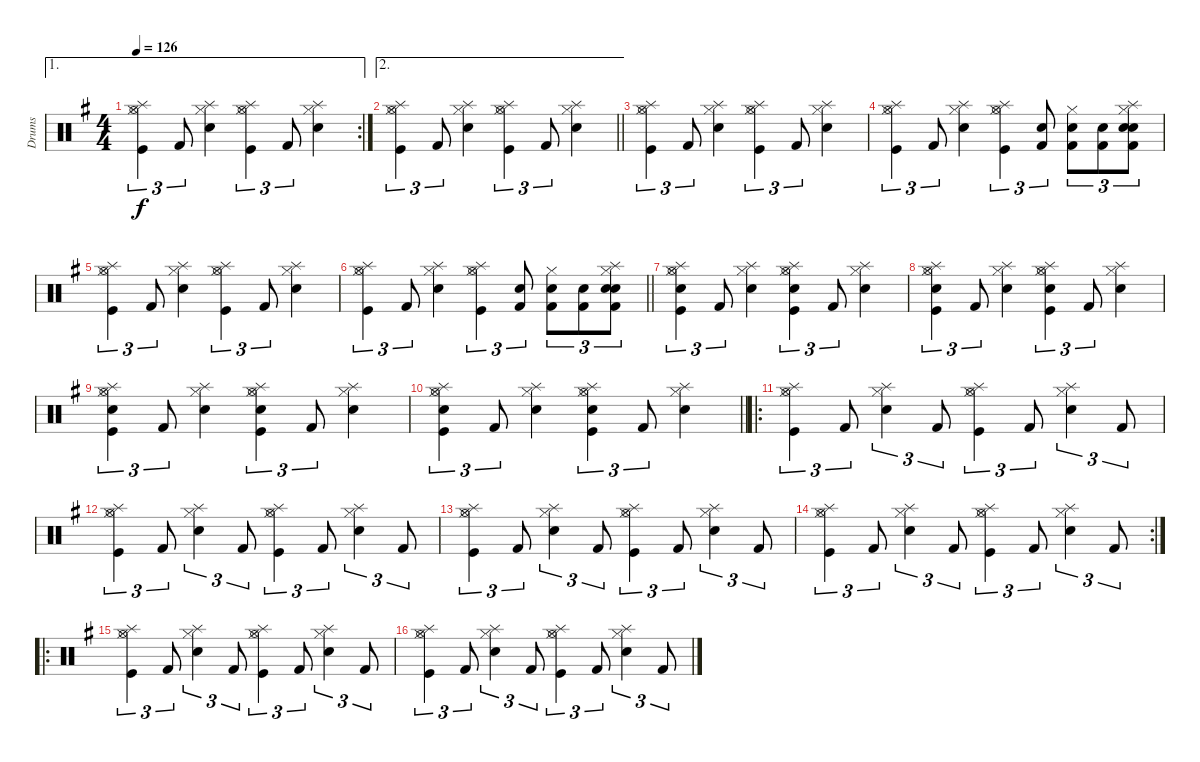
\track ("Drums" "Drums") {instrument percussion}
\staff {score}
\articulation defaults
\ae 1
\rc 2
\ts (4 4)
\tempo 126
\clef neutral
\ks eminor
("Splash (hit)" "Hi-Hat (closed)" "Hi-Hat (open)" "Kick (hit)").4{tu (3 2) dy f} "Kick (hit) 2".8{tu (3 2)} ("Splash (hit)" "Hi-Hat (closed)" "Electric Snare (hit)").4 ("Splash (hit)" "Hi-Hat (closed)" "Hi-Hat (open)" "Kick (hit)").4{tu (3 2)} "Kick (hit) 2".8{tu (3 2)} ("Splash (hit)" "Hi-Hat (closed)" "Electric Snare (hit)").4 |
\ae 2
\barLineRight lightlight
("Splash (hit)" "Hi-Hat (closed)" "Hi-Hat (open)" "Kick (hit)").4{tu (3 2)} "Kick (hit) 2".8{tu (3 2)} ("Splash (hit)" "Hi-Hat (closed)" "Electric Snare (hit)").4 ("Splash (hit)" "Hi-Hat (closed)" "Hi-Hat (open)" "Kick (hit)").4{tu (3 2)} "Kick (hit) 2".8{tu (3 2)} ("Splash (hit)" "Hi-Hat (closed)" "Electric Snare (hit)").4 |
("Splash (hit)" "Hi-Hat (closed)" "Hi-Hat (open)" "Kick (hit)").4{tu (3 2)} "Kick (hit) 2".8{tu (3 2)} ("Splash (hit)" "Hi-Hat (closed)" "Electric Snare (hit)").4 ("Splash (hit)" "Hi-Hat (closed)" "Hi-Hat (open)" "Kick (hit)").4{tu (3 2)} "Kick (hit) 2".8{tu (3 2)} ("Splash (hit)" "Hi-Hat (closed)" "Electric Snare (hit)").4 |
("Splash (hit)" "Hi-Hat (closed)" "Hi-Hat (open)" "Kick (hit)").4{tu (3 2)} "Kick (hit) 2".8{tu (3 2)} ("Splash (hit)" "Hi-Hat (closed)" "Electric Snare (hit)").4 ("Splash (hit)" "Hi-Hat (closed)" "Hi-Hat (open)" "Kick (hit)").4{tu (3 2)} ("Electric Snare (hit)" "Kick (hit) 2").8{tu (3 2)} ("Hi-Hat (closed)" "Electric Snare (hit)" "Kick (hit) 2").8{tu (3 2)} ("Electric Snare (hit)" "Kick (hit) 2").8{tu (3 2)} ("Splash (hit)" "Hi-Hat (closed)" "Snare (hit) 2" "Electric Snare (hit)" "Kick (hit) 2").8{tu (3 2)} |
("Splash (hit)" "Hi-Hat (closed)" "Hi-Hat (open)" "Kick (hit)").4{tu (3 2)} "Kick (hit) 2".8{tu (3 2)} ("Splash (hit)" "Hi-Hat (closed)" "Electric Snare (hit)").4 ("Splash (hit)" "Hi-Hat (closed)" "Hi-Hat (open)" "Kick (hit)").4{tu (3 2)} "Kick (hit) 2".8{tu (3 2)} ("Splash (hit)" "Hi-Hat (closed)" "Electric Snare (hit)").4 |
\barLineRight lightlight
("Splash (hit)" "Hi-Hat (closed)" "Hi-Hat (open)" "Kick (hit)").4{tu (3 2)} "Kick (hit) 2".8{tu (3 2)} ("Splash (hit)" "Hi-Hat (closed)" "Electric Snare (hit)").4 ("Splash (hit)" "Hi-Hat (closed)" "Hi-Hat (open)" "Kick (hit)").4{tu (3 2)} ("Electric Snare (hit)" "Kick (hit) 2").8{tu (3 2)} ("Hi-Hat (closed)" "Electric Snare (hit)" "Kick (hit) 2").8{tu (3 2)} ("Electric Snare (hit)" "Kick (hit) 2").8{tu (3 2)} ("Splash (hit)" "Hi-Hat (closed)" "Snare (hit) 2" "Electric Snare (hit)" "Kick (hit) 2").8{tu (3 2)} |
("Splash (hit)" "Hi-Hat (closed)" "Hi-Hat (open)" "Electric Snare (hit)" "Kick (hit)").4{tu (3 2)} "Kick (hit) 2".8{tu (3 2)} ("Splash (hit)" "Hi-Hat (closed)" "Electric Snare (hit)").4 ("Splash (hit)" "Hi-Hat (closed)" "Hi-Hat (open)" "Electric Snare (hit)" "Kick (hit)").4{tu (3 2)} "Kick (hit) 2".8{tu (3 2)} ("Splash (hit)" "Hi-Hat (closed)" "Electric Snare (hit)").4 |
("Splash (hit)" "Hi-Hat (closed)" "Hi-Hat (open)" "Electric Snare (hit)" "Kick (hit)").4{tu (3 2)} "Kick (hit) 2".8{tu (3 2)} ("Splash (hit)" "Hi-Hat (closed)" "Electric Snare (hit)").4 ("Splash (hit)" "Hi-Hat (closed)" "Hi-Hat (open)" "Electric Snare (hit)" "Kick (hit)").4{tu (3 2)} "Kick (hit) 2".8{tu (3 2)} ("Splash (hit)" "Hi-Hat (closed)" "Electric Snare (hit)").4 |
("Splash (hit)" "Hi-Hat (closed)" "Hi-Hat (open)" "Electric Snare (hit)" "Kick (hit)").4{tu (3 2)} "Kick (hit) 2".8{tu (3 2)} ("Splash (hit)" "Hi-Hat (closed)" "Electric Snare (hit)").4 ("Splash (hit)" "Hi-Hat (closed)" "Hi-Hat (open)" "Electric Snare (hit)" "Kick (hit)").4{tu (3 2)} "Kick (hit) 2".8{tu (3 2)} ("Splash (hit)" "Hi-Hat (closed)" "Electric Snare (hit)").4 |
\barLineRight lightlight
("Splash (hit)" "Hi-Hat (closed)" "Hi-Hat (open)" "Electric Snare (hit)" "Kick (hit)").4{tu (3 2)} "Kick (hit) 2".8{tu (3 2)} ("Splash (hit)" "Hi-Hat (closed)" "Electric Snare (hit)").4 ("Splash (hit)" "Hi-Hat (closed)" "Hi-Hat (open)" "Electric Snare (hit)" "Kick (hit)").4{tu (3 2)} "Kick (hit) 2".8{tu (3 2)} ("Splash (hit)" "Hi-Hat (closed)" "Electric Snare (hit)").4 |
\ro
("Splash (hit)" "Hi-Hat (closed)" "Hi-Hat (open)" "Kick (hit)").4{tu (3 2)} "Kick (hit) 2".8{tu (3 2)} ("Splash (hit)" "Hi-Hat (closed)" "Electric Snare (hit)").4{tu (3 2)} "Kick (hit) 2".8{tu (3 2)} ("Splash (hit)" "Hi-Hat (closed)" "Hi-Hat (open)" "Kick (hit)").4{tu (3 2)} "Kick (hit) 2".8{tu (3 2)} ("Splash (hit)" "Hi-Hat (closed)" "Electric Snare (hit)").4{tu (3 2)} "Kick (hit) 2".8{tu (3 2)} |
("Splash (hit)" "Hi-Hat (closed)" "Hi-Hat (open)" "Kick (hit)").4{tu (3 2)} "Kick (hit) 2".8{tu (3 2)} ("Splash (hit)" "Hi-Hat (closed)" "Electric Snare (hit)").4{tu (3 2)} "Kick (hit) 2".8{tu (3 2)} ("Splash (hit)" "Hi-Hat (closed)" "Hi-Hat (open)" "Kick (hit)").4{tu (3 2)} "Kick (hit) 2".8{tu (3 2)} ("Splash (hit)" "Hi-Hat (closed)" "Electric Snare (hit)").4{tu (3 2)} "Kick (hit) 2".8{tu (3 2)} |
("Splash (hit)" "Hi-Hat (closed)" "Hi-Hat (open)" "Kick (hit)").4{tu (3 2)} "Kick (hit) 2".8{tu (3 2)} ("Splash (hit)" "Hi-Hat (closed)" "Electric Snare (hit)").4{tu (3 2)} "Kick (hit) 2".8{tu (3 2)} ("Splash (hit)" "Hi-Hat (closed)" "Hi-Hat (open)" "Kick (hit)").4{tu (3 2)} "Kick (hit) 2".8{tu (3 2)} ("Splash (hit)" "Hi-Hat (closed)" "Electric Snare (hit)").4{tu (3 2)} "Kick (hit) 2".8{tu (3 2)} |
\rc 2
("Splash (hit)" "Hi-Hat (closed)" "Hi-Hat (open)" "Kick (hit)").4{tu (3 2)} "Kick (hit) 2".8{tu (3 2)} ("Splash (hit)" "Hi-Hat (closed)" "Electric Snare (hit)").4{tu (3 2)} "Kick (hit) 2".8{tu (3 2)} ("Splash (hit)" "Hi-Hat (closed)" "Hi-Hat (open)" "Kick (hit)").4{tu (3 2)} "Kick (hit) 2".8{tu (3 2)} ("Splash (hit)" "Hi-Hat (closed)" "Electric Snare (hit)").4{tu (3 2)} "Kick (hit) 2".8{tu (3 2)} |
\ro
("Splash (hit)" "Hi-Hat (closed)" "Hi-Hat (open)" "Kick (hit)").4{tu (3 2)} "Kick (hit) 2".8{tu (3 2)} ("Splash (hit)" "Hi-Hat (closed)" "Electric Snare (hit)").4{tu (3 2)} "Kick (hit) 2".8{tu (3 2)} ("Splash (hit)" "Hi-Hat (closed)" "Hi-Hat (open)" "Kick (hit)").4{tu (3 2)} "Kick (hit) 2".8{tu (3 2)} ("Splash (hit)" "Hi-Hat (closed)" "Electric Snare (hit)").4{tu (3 2)} "Kick (hit) 2".8{tu (3 2)} |
("Splash (hit)" "Hi-Hat (closed)" "Hi-Hat (open)" "Kick (hit)").4{tu (3 2)} "Kick (hit) 2".8{tu (3 2)} ("Splash (hit)" "Hi-Hat (closed)" "Electric Snare (hit)").4{tu (3 2)} "Kick (hit) 2".8{tu (3 2)} ("Splash (hit)" "Hi-Hat (closed)" "Hi-Hat (open)" "Kick (hit)").4{tu (3 2)} "Kick (hit) 2".8{tu (3 2)} ("Splash (hit)" "Hi-Hat (closed)" "Electric Snare (hit)").4{tu (3 2)} "Kick (hit) 2".8{tu (3 2)}
